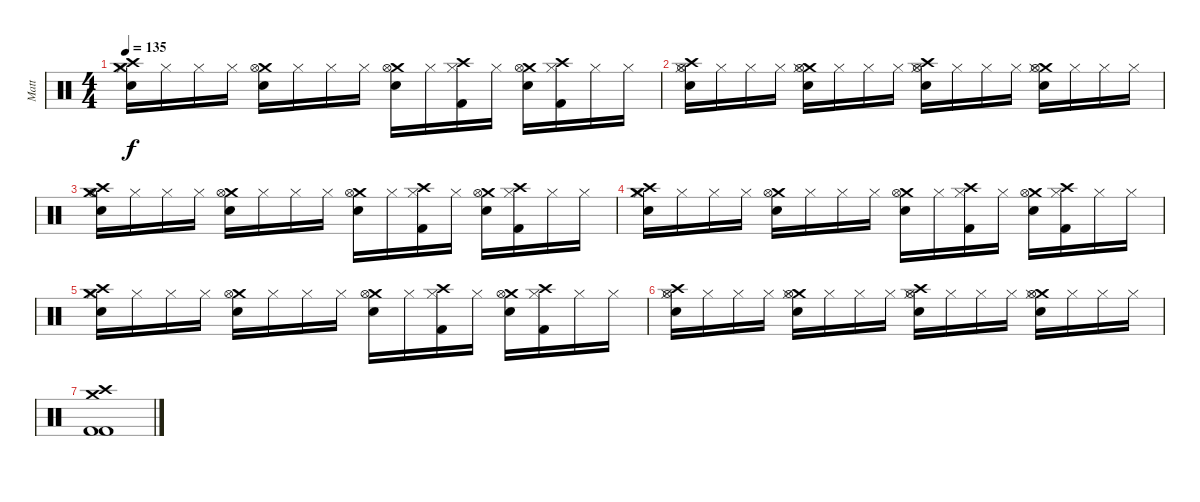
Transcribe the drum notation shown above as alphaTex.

\track ("Matt" "Matt") {instrument percussion}
\staff {score}
\articulation defaults
\ts (4 4)
\tempo 135
\clef neutral
\ks c
("Crash medium (hit)" "Hi-Hat (closed)" "Crash high (hit)" "Snare (hit) 2").16{dy f} "Hi-Hat (closed)".16 "Hi-Hat (closed)".16 "Hi-Hat (closed)".16 ("Crash medium (hit)" "Hi-Hat (open)" "Snare (hit) 2").16 "Hi-Hat (closed)".16 "Hi-Hat (closed)".16 "Hi-Hat (closed)".16 ("Crash medium (hit)" "Hi-Hat (open)" "Snare (hit) 2").16 "Hi-Hat (closed)".16 ("Crash high (hit)" "Hi-Hat (closed)" "Kick (hit) 2").16 "Hi-Hat (closed)".16 ("Crash medium (hit)" "Hi-Hat (open)" "Snare (hit) 2").16 ("Crash high (hit)" "Hi-Hat (closed)" "Kick (hit) 2").16 "Hi-Hat (closed)".16 "Hi-Hat (closed)".16 |
("Crash high (hit)" "Hi-Hat (closed)" "Hi-Hat (open)" "Snare (hit) 2").16 "Hi-Hat (closed)".16 "Hi-Hat (closed)".16 "Hi-Hat (closed)".16 ("Crash medium (hit)" "Hi-Hat (closed)" "Hi-Hat (open)" "Snare (hit) 2").16 "Hi-Hat (closed)".16 "Hi-Hat (closed)".16 "Hi-Hat (closed)".16 ("Crash high (hit)" "Hi-Hat (closed)" "Hi-Hat (open)" "Snare (hit) 2").16 "Hi-Hat (closed)".16 "Hi-Hat (closed)".16 "Hi-Hat (closed)".16 ("Crash medium (hit)" "Hi-Hat (closed)" "Hi-Hat (open)" "Snare (hit) 2").16 "Hi-Hat (closed)".16 "Hi-Hat (closed)".16 "Hi-Hat (closed)".16 |
("Crash medium (hit)" "Hi-Hat (open)" "Crash high (hit)" "Snare (hit) 2").16 "Hi-Hat (closed)".16 "Hi-Hat (closed)".16 "Hi-Hat (closed)".16 ("Crash medium (hit)" "Hi-Hat (open)" "Snare (hit) 2").16 "Hi-Hat (closed)".16 "Hi-Hat (closed)".16 "Hi-Hat (closed)".16 ("Crash medium (hit)" "Hi-Hat (open)" "Snare (hit) 2").16 "Hi-Hat (closed)".16 ("Hi-Hat (closed)" "Crash high (hit)" "Kick (hit) 2").16 "Hi-Hat (closed)".16 ("Crash medium (hit)" "Hi-Hat (open)" "Snare (hit) 2").16 ("Hi-Hat (closed)" "Crash high (hit)" "Kick (hit) 2").16 "Hi-Hat (closed)".16 "Hi-Hat (closed)".16 |
("Crash medium (hit)" "Hi-Hat (closed)" "Crash high (hit)" "Snare (hit) 2").16 "Hi-Hat (closed)".16 "Hi-Hat (closed)".16 "Hi-Hat (closed)".16 ("Crash medium (hit)" "Hi-Hat (open)" "Snare (hit) 2").16 "Hi-Hat (closed)".16 "Hi-Hat (closed)".16 "Hi-Hat (closed)".16 ("Crash medium (hit)" "Hi-Hat (open)" "Snare (hit) 2").16 "Hi-Hat (closed)".16 ("Crash high (hit)" "Hi-Hat (closed)" "Kick (hit) 2").16 "Hi-Hat (closed)".16 ("Crash medium (hit)" "Hi-Hat (open)" "Snare (hit) 2").16 ("Crash high (hit)" "Hi-Hat (closed)" "Kick (hit) 2").16 "Hi-Hat (closed)".16 "Hi-Hat (closed)".16 |
("Crash medium (hit)" "Hi-Hat (closed)" "Crash high (hit)" "Snare (hit) 2").16 "Hi-Hat (closed)".16 "Hi-Hat (closed)".16 "Hi-Hat (closed)".16 ("Crash medium (hit)" "Hi-Hat (open)" "Snare (hit) 2").16 "Hi-Hat (closed)".16 "Hi-Hat (closed)".16 "Hi-Hat (closed)".16 ("Crash medium (hit)" "Hi-Hat (open)" "Snare (hit) 2").16 "Hi-Hat (closed)".16 ("Crash high (hit)" "Hi-Hat (closed)" "Kick (hit) 2").16 "Hi-Hat (closed)".16 ("Crash medium (hit)" "Hi-Hat (open)" "Snare (hit) 2").16 ("Crash high (hit)" "Hi-Hat (closed)" "Kick (hit) 2").16 "Hi-Hat (closed)".16 "Hi-Hat (closed)".16 |
("Crash high (hit)" "Hi-Hat (closed)" "Hi-Hat (open)" "Snare (hit) 2").16 "Hi-Hat (closed)".16 "Hi-Hat (closed)".16 "Hi-Hat (closed)".16 ("Crash medium (hit)" "Hi-Hat (closed)" "Hi-Hat (open)" "Snare (hit) 2").16 "Hi-Hat (closed)".16 "Hi-Hat (closed)".16 "Hi-Hat (closed)".16 ("Crash high (hit)" "Hi-Hat (closed)" "Hi-Hat (open)" "Snare (hit) 2").16 "Hi-Hat (closed)".16 "Hi-Hat (closed)".16 "Hi-Hat (closed)".16 ("Crash medium (hit)" "Hi-Hat (closed)" "Hi-Hat (open)" "Snare (hit) 2").16 "Hi-Hat (closed)".16 "Hi-Hat (closed)".16 "Hi-Hat (closed)".16 |
("Crash medium (hit)" "Crash high (hit)" "Kick (hit) 2" "Kick (hit) 2").1
